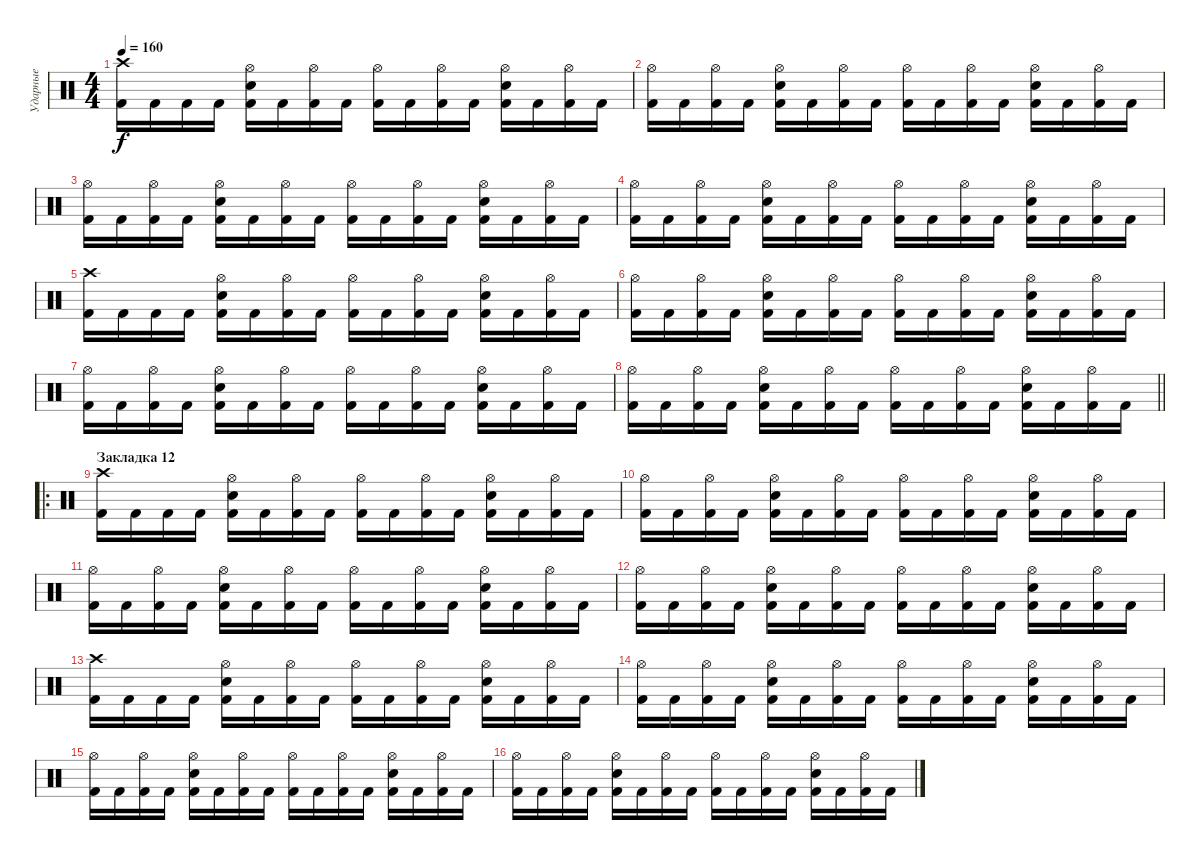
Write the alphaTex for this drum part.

\track ("Ударные" "Ударные") {instrument percussion}
\staff {score}
\articulation defaults
\ts (4 4)
\tempo 160
\clef neutral
\ks c
("Crash high (hit)" "Kick (hit) 2").16{dy f} "Kick (hit) 2".16 "Kick (hit) 2".16 "Kick (hit) 2".16 ("Electric Snare (hit)" "Hi-Hat (open)" "Kick (hit) 2").16 "Kick (hit) 2".16 ("Hi-Hat (open)" "Kick (hit) 2").16 "Kick (hit) 2".16 ("Hi-Hat (open)" "Kick (hit) 2").16 "Kick (hit) 2".16 ("Hi-Hat (open)" "Kick (hit) 2").16 "Kick (hit) 2".16 ("Electric Snare (hit)" "Hi-Hat (open)" "Kick (hit) 2").16 "Kick (hit) 2".16 ("Hi-Hat (open)" "Kick (hit) 2").16 "Kick (hit) 2".16 |
("Hi-Hat (open)" "Kick (hit) 2").16 "Kick (hit) 2".16 ("Hi-Hat (open)" "Kick (hit) 2").16 "Kick (hit) 2".16 ("Electric Snare (hit)" "Hi-Hat (open)" "Kick (hit) 2").16 "Kick (hit) 2".16 ("Hi-Hat (open)" "Kick (hit) 2").16 "Kick (hit) 2".16 ("Hi-Hat (open)" "Kick (hit) 2").16 "Kick (hit) 2".16 ("Hi-Hat (open)" "Kick (hit) 2").16 "Kick (hit) 2".16 ("Electric Snare (hit)" "Hi-Hat (open)" "Kick (hit) 2").16 "Kick (hit) 2".16 ("Hi-Hat (open)" "Kick (hit) 2").16 "Kick (hit) 2".16 |
("Hi-Hat (open)" "Kick (hit) 2").16 "Kick (hit) 2".16 ("Hi-Hat (open)" "Kick (hit) 2").16 "Kick (hit) 2".16 ("Electric Snare (hit)" "Hi-Hat (open)" "Kick (hit) 2").16 "Kick (hit) 2".16 ("Hi-Hat (open)" "Kick (hit) 2").16 "Kick (hit) 2".16 ("Hi-Hat (open)" "Kick (hit) 2").16 "Kick (hit) 2".16 ("Hi-Hat (open)" "Kick (hit) 2").16 "Kick (hit) 2".16 ("Electric Snare (hit)" "Hi-Hat (open)" "Kick (hit) 2").16 "Kick (hit) 2".16 ("Hi-Hat (open)" "Kick (hit) 2").16 "Kick (hit) 2".16 |
("Hi-Hat (open)" "Kick (hit) 2").16 "Kick (hit) 2".16 ("Hi-Hat (open)" "Kick (hit) 2").16 "Kick (hit) 2".16 ("Electric Snare (hit)" "Hi-Hat (open)" "Kick (hit) 2").16 "Kick (hit) 2".16 ("Hi-Hat (open)" "Kick (hit) 2").16 "Kick (hit) 2".16 ("Hi-Hat (open)" "Kick (hit) 2").16 "Kick (hit) 2".16 ("Hi-Hat (open)" "Kick (hit) 2").16 "Kick (hit) 2".16 ("Electric Snare (hit)" "Hi-Hat (open)" "Kick (hit) 2").16 "Kick (hit) 2".16 ("Hi-Hat (open)" "Kick (hit) 2").16 "Kick (hit) 2".16 |
("Crash high (hit)" "Kick (hit) 2").16 "Kick (hit) 2".16 "Kick (hit) 2".16 "Kick (hit) 2".16 ("Electric Snare (hit)" "Hi-Hat (open)" "Kick (hit) 2").16 "Kick (hit) 2".16 ("Hi-Hat (open)" "Kick (hit) 2").16 "Kick (hit) 2".16 ("Hi-Hat (open)" "Kick (hit) 2").16 "Kick (hit) 2".16 ("Hi-Hat (open)" "Kick (hit) 2").16 "Kick (hit) 2".16 ("Electric Snare (hit)" "Hi-Hat (open)" "Kick (hit) 2").16 "Kick (hit) 2".16 ("Hi-Hat (open)" "Kick (hit) 2").16 "Kick (hit) 2".16 |
("Hi-Hat (open)" "Kick (hit) 2").16 "Kick (hit) 2".16 ("Hi-Hat (open)" "Kick (hit) 2").16 "Kick (hit) 2".16 ("Electric Snare (hit)" "Hi-Hat (open)" "Kick (hit) 2").16 "Kick (hit) 2".16 ("Hi-Hat (open)" "Kick (hit) 2").16 "Kick (hit) 2".16 ("Hi-Hat (open)" "Kick (hit) 2").16 "Kick (hit) 2".16 ("Hi-Hat (open)" "Kick (hit) 2").16 "Kick (hit) 2".16 ("Electric Snare (hit)" "Hi-Hat (open)" "Kick (hit) 2").16 "Kick (hit) 2".16 ("Hi-Hat (open)" "Kick (hit) 2").16 "Kick (hit) 2".16 |
("Hi-Hat (open)" "Kick (hit) 2").16 "Kick (hit) 2".16 ("Hi-Hat (open)" "Kick (hit) 2").16 "Kick (hit) 2".16 ("Electric Snare (hit)" "Hi-Hat (open)" "Kick (hit) 2").16 "Kick (hit) 2".16 ("Hi-Hat (open)" "Kick (hit) 2").16 "Kick (hit) 2".16 ("Hi-Hat (open)" "Kick (hit) 2").16 "Kick (hit) 2".16 ("Hi-Hat (open)" "Kick (hit) 2").16 "Kick (hit) 2".16 ("Electric Snare (hit)" "Hi-Hat (open)" "Kick (hit) 2").16 "Kick (hit) 2".16 ("Hi-Hat (open)" "Kick (hit) 2").16 "Kick (hit) 2".16 |
\barLineRight lightlight
("Hi-Hat (open)" "Kick (hit) 2").16 "Kick (hit) 2".16 ("Hi-Hat (open)" "Kick (hit) 2").16 "Kick (hit) 2".16 ("Electric Snare (hit)" "Hi-Hat (open)" "Kick (hit) 2").16 "Kick (hit) 2".16 ("Hi-Hat (open)" "Kick (hit) 2").16 "Kick (hit) 2".16 ("Hi-Hat (open)" "Kick (hit) 2").16 "Kick (hit) 2".16 ("Hi-Hat (open)" "Kick (hit) 2").16 "Kick (hit) 2".16 ("Electric Snare (hit)" "Hi-Hat (open)" "Kick (hit) 2").16 "Kick (hit) 2".16 ("Hi-Hat (open)" "Kick (hit) 2").16 "Kick (hit) 2".16 |
\ro
\section ("" "Закладка 12")
("Crash high (hit)" "Kick (hit) 2").16 "Kick (hit) 2".16 "Kick (hit) 2".16 "Kick (hit) 2".16 ("Electric Snare (hit)" "Hi-Hat (open)" "Kick (hit) 2").16 "Kick (hit) 2".16 ("Hi-Hat (open)" "Kick (hit) 2").16 "Kick (hit) 2".16 ("Hi-Hat (open)" "Kick (hit) 2").16 "Kick (hit) 2".16 ("Hi-Hat (open)" "Kick (hit) 2").16 "Kick (hit) 2".16 ("Electric Snare (hit)" "Hi-Hat (open)" "Kick (hit) 2").16 "Kick (hit) 2".16 ("Hi-Hat (open)" "Kick (hit) 2").16 "Kick (hit) 2".16 |
("Hi-Hat (open)" "Kick (hit) 2").16 "Kick (hit) 2".16 ("Hi-Hat (open)" "Kick (hit) 2").16 "Kick (hit) 2".16 ("Electric Snare (hit)" "Hi-Hat (open)" "Kick (hit) 2").16 "Kick (hit) 2".16 ("Hi-Hat (open)" "Kick (hit) 2").16 "Kick (hit) 2".16 ("Hi-Hat (open)" "Kick (hit) 2").16 "Kick (hit) 2".16 ("Hi-Hat (open)" "Kick (hit) 2").16 "Kick (hit) 2".16 ("Electric Snare (hit)" "Hi-Hat (open)" "Kick (hit) 2").16 "Kick (hit) 2".16 ("Hi-Hat (open)" "Kick (hit) 2").16 "Kick (hit) 2".16 |
("Hi-Hat (open)" "Kick (hit) 2").16 "Kick (hit) 2".16 ("Hi-Hat (open)" "Kick (hit) 2").16 "Kick (hit) 2".16 ("Electric Snare (hit)" "Hi-Hat (open)" "Kick (hit) 2").16 "Kick (hit) 2".16 ("Hi-Hat (open)" "Kick (hit) 2").16 "Kick (hit) 2".16 ("Hi-Hat (open)" "Kick (hit) 2").16 "Kick (hit) 2".16 ("Hi-Hat (open)" "Kick (hit) 2").16 "Kick (hit) 2".16 ("Electric Snare (hit)" "Hi-Hat (open)" "Kick (hit) 2").16 "Kick (hit) 2".16 ("Hi-Hat (open)" "Kick (hit) 2").16 "Kick (hit) 2".16 |
("Hi-Hat (open)" "Kick (hit) 2").16 "Kick (hit) 2".16 ("Hi-Hat (open)" "Kick (hit) 2").16 "Kick (hit) 2".16 ("Electric Snare (hit)" "Hi-Hat (open)" "Kick (hit) 2").16 "Kick (hit) 2".16 ("Hi-Hat (open)" "Kick (hit) 2").16 "Kick (hit) 2".16 ("Hi-Hat (open)" "Kick (hit) 2").16 "Kick (hit) 2".16 ("Hi-Hat (open)" "Kick (hit) 2").16 "Kick (hit) 2".16 ("Electric Snare (hit)" "Hi-Hat (open)" "Kick (hit) 2").16 "Kick (hit) 2".16 ("Hi-Hat (open)" "Kick (hit) 2").16 "Kick (hit) 2".16 |
("Crash high (hit)" "Kick (hit) 2").16 "Kick (hit) 2".16 "Kick (hit) 2".16 "Kick (hit) 2".16 ("Electric Snare (hit)" "Hi-Hat (open)" "Kick (hit) 2").16 "Kick (hit) 2".16 ("Hi-Hat (open)" "Kick (hit) 2").16 "Kick (hit) 2".16 ("Hi-Hat (open)" "Kick (hit) 2").16 "Kick (hit) 2".16 ("Hi-Hat (open)" "Kick (hit) 2").16 "Kick (hit) 2".16 ("Electric Snare (hit)" "Hi-Hat (open)" "Kick (hit) 2").16 "Kick (hit) 2".16 ("Hi-Hat (open)" "Kick (hit) 2").16 "Kick (hit) 2".16 |
("Hi-Hat (open)" "Kick (hit) 2").16 "Kick (hit) 2".16 ("Hi-Hat (open)" "Kick (hit) 2").16 "Kick (hit) 2".16 ("Electric Snare (hit)" "Hi-Hat (open)" "Kick (hit) 2").16 "Kick (hit) 2".16 ("Hi-Hat (open)" "Kick (hit) 2").16 "Kick (hit) 2".16 ("Hi-Hat (open)" "Kick (hit) 2").16 "Kick (hit) 2".16 ("Hi-Hat (open)" "Kick (hit) 2").16 "Kick (hit) 2".16 ("Electric Snare (hit)" "Hi-Hat (open)" "Kick (hit) 2").16 "Kick (hit) 2".16 ("Hi-Hat (open)" "Kick (hit) 2").16 "Kick (hit) 2".16 |
("Hi-Hat (open)" "Kick (hit) 2").16 "Kick (hit) 2".16 ("Hi-Hat (open)" "Kick (hit) 2").16 "Kick (hit) 2".16 ("Electric Snare (hit)" "Hi-Hat (open)" "Kick (hit) 2").16 "Kick (hit) 2".16 ("Hi-Hat (open)" "Kick (hit) 2").16 "Kick (hit) 2".16 ("Hi-Hat (open)" "Kick (hit) 2").16 "Kick (hit) 2".16 ("Hi-Hat (open)" "Kick (hit) 2").16 "Kick (hit) 2".16 ("Electric Snare (hit)" "Hi-Hat (open)" "Kick (hit) 2").16 "Kick (hit) 2".16 ("Hi-Hat (open)" "Kick (hit) 2").16 "Kick (hit) 2".16 |
("Hi-Hat (open)" "Kick (hit) 2").16 "Kick (hit) 2".16 ("Hi-Hat (open)" "Kick (hit) 2").16 "Kick (hit) 2".16 ("Electric Snare (hit)" "Hi-Hat (open)" "Kick (hit) 2").16 "Kick (hit) 2".16 ("Hi-Hat (open)" "Kick (hit) 2").16 "Kick (hit) 2".16 ("Hi-Hat (open)" "Kick (hit) 2").16 "Kick (hit) 2".16 ("Hi-Hat (open)" "Kick (hit) 2").16 "Kick (hit) 2".16 ("Electric Snare (hit)" "Hi-Hat (open)" "Kick (hit) 2").16 "Kick (hit) 2".16 ("Hi-Hat (open)" "Kick (hit) 2").16 "Kick (hit) 2".16
